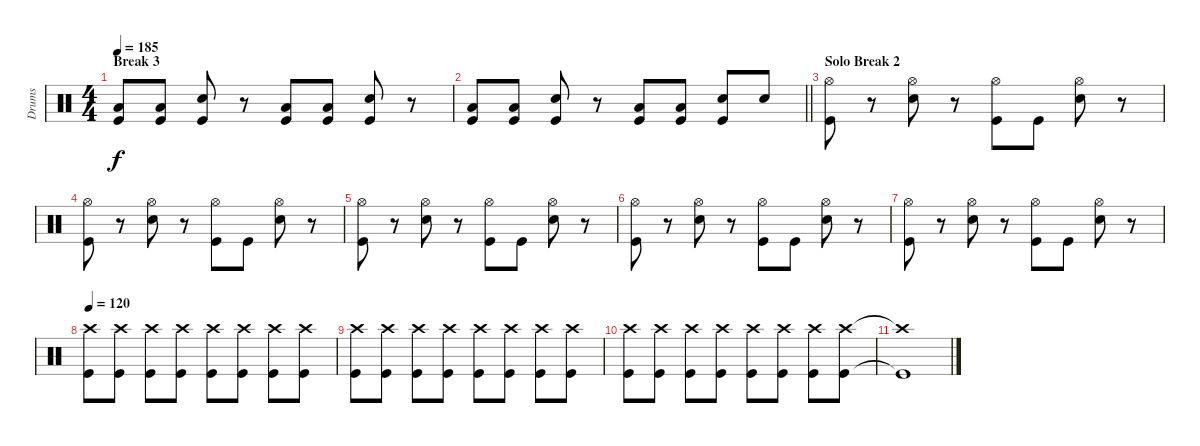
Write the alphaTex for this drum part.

\track ("Drums" "Drums") {instrument percussion}
\staff {score}
\articulation defaults
\ts (4 4)
\section ("" "Break 3")
\tempo 185
\clef neutral
\ks c
("Low Floor Tom (hit)" "Kick (hit)").8{dy f} ("Low Floor Tom (hit)" "Kick (hit)").8 ("Electric Snare (hit)" "Kick (hit)").8 r.8 ("Low Floor Tom (hit)" "Kick (hit)").8 ("Low Floor Tom (hit)" "Kick (hit)").8 ("Electric Snare (hit)" "Kick (hit)").8 r.8 |
\barLineRight lightlight
("Low Floor Tom (hit)" "Kick (hit)").8 ("Low Floor Tom (hit)" "Kick (hit)").8 ("Electric Snare (hit)" "Kick (hit)").8 r.8 ("Low Floor Tom (hit)" "Kick (hit)").8 ("Low Floor Tom (hit)" "Kick (hit)").8 ("Electric Snare (hit)" "Kick (hit)").8 "Electric Snare (hit)".8 |
\section ("" "Solo Break 2")
("Hi-Hat (open)" "Kick (hit)").8 r.8 ("Hi-Hat (open)" "Electric Snare (hit)").8 r.8 ("Hi-Hat (open)" "Kick (hit)").8 "Kick (hit)".8 ("Hi-Hat (open)" "Electric Snare (hit)").8 r.8 |
("Hi-Hat (open)" "Kick (hit)").8 r.8 ("Hi-Hat (open)" "Electric Snare (hit)").8 r.8 ("Hi-Hat (open)" "Kick (hit)").8 "Kick (hit)".8 ("Hi-Hat (open)" "Electric Snare (hit)").8 r.8 |
("Hi-Hat (open)" "Kick (hit)").8 r.8 ("Hi-Hat (open)" "Electric Snare (hit)").8 r.8 ("Hi-Hat (open)" "Kick (hit)").8 "Kick (hit)".8 ("Hi-Hat (open)" "Electric Snare (hit)").8 r.8 |
("Hi-Hat (open)" "Kick (hit)").8 r.8 ("Hi-Hat (open)" "Electric Snare (hit)").8 r.8 ("Hi-Hat (open)" "Kick (hit)").8 "Kick (hit)".8 ("Hi-Hat (open)" "Electric Snare (hit)").8 r.8 |
("Hi-Hat (open)" "Kick (hit)").8 r.8 ("Hi-Hat (open)" "Electric Snare (hit)").8 r.8 ("Hi-Hat (open)" "Kick (hit)").8 "Kick (hit)".8 ("Hi-Hat (open)" "Electric Snare (hit)").8 r.8 |
\tempo 120
("Crash high (hit)" "Kick (hit)").8 ("Crash high (hit)" "Kick (hit)").8 ("Crash high (hit)" "Kick (hit)").8 ("Crash high (hit)" "Kick (hit)").8 ("Crash high (hit)" "Kick (hit)").8 ("Crash high (hit)" "Kick (hit)").8 ("Crash high (hit)" "Kick (hit)").8 ("Crash high (hit)" "Kick (hit)").8 |
("Crash high (hit)" "Kick (hit)").8 ("Crash high (hit)" "Kick (hit)").8 ("Crash high (hit)" "Kick (hit)").8 ("Crash high (hit)" "Kick (hit)").8 ("Crash high (hit)" "Kick (hit)").8 ("Crash high (hit)" "Kick (hit)").8 ("Crash high (hit)" "Kick (hit)").8 ("Crash high (hit)" "Kick (hit)").8 |
("Crash high (hit)" "Kick (hit)").8 ("Crash high (hit)" "Kick (hit)").8 ("Crash high (hit)" "Kick (hit)").8 ("Crash high (hit)" "Kick (hit)").8 ("Crash high (hit)" "Kick (hit)").8 ("Crash high (hit)" "Kick (hit)").8 ("Crash high (hit)" "Kick (hit)").8 ("Crash high (hit)" "Kick (hit)").8 |
("Crash high (hit)"{t} "Kick (hit)"{t}).1
